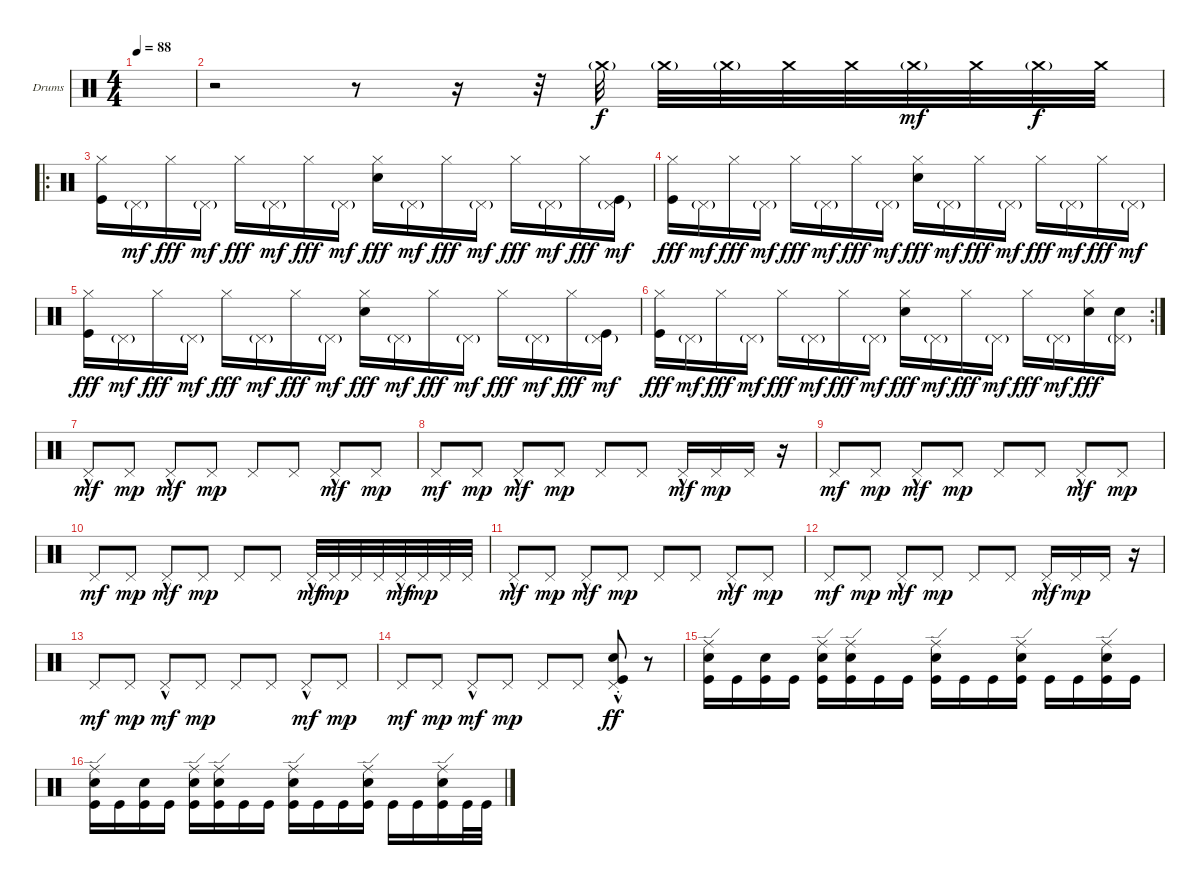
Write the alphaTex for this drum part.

\defaultSystemsLayout 4
\bracketExtendMode groupsimilarinstruments
\firstSystemTrackNameOrientation horizontal
\otherSystemsTrackNameOrientation horizontal
\track ("Drumkit" "Drums") {instrument percussion}
\staff {score}
\articulation defaults
\ts (4 4)
\tempo 88
\clef neutral
\scale
0.472222
\ks c
|
\scale
0.263889 r.2 r.8 r.16 r.32 "Crash medium (hit)"{g}.32 "Crash medium (hit)"{g}.32 "Crash medium (hit)"{g}.32 "Crash medium (hit)".32 "Crash medium (hit)".32 "Crash medium (hit)"{g}.32{dy mf} "Crash medium (hit)".32 "Crash medium (hit)"{g}.32{dy f} "Crash medium (hit)".32 |
\ro
\scale
0.333333 ("Hi-Hat (closed)" "Kick (hit)").16 "Pedal Hi-Hat (hit)"{g}.16{dy mf} "Hi-Hat (closed)".16{dy fff} "Pedal Hi-Hat (hit)"{g}.16{dy mf} "Hi-Hat (closed)".16{dy fff} "Pedal Hi-Hat (hit)"{g}.16{dy mf} "Hi-Hat (closed)".16{dy fff} "Pedal Hi-Hat (hit)"{g}.16{dy mf} ("Hi-Hat (closed)" "Snare (hit) 2").16{dy fff} "Pedal Hi-Hat (hit)"{g}.16{dy mf} "Hi-Hat (closed)".16{dy fff} "Pedal Hi-Hat (hit)"{g}.16{dy mf} "Hi-Hat (closed)".16{dy fff} "Pedal Hi-Hat (hit)"{g}.16{dy mf} "Hi-Hat (closed)".16{dy fff} ("Pedal Hi-Hat (hit)"{g} "Kick (hit)").16{dy mf} |
\scale
0.333333 ("Hi-Hat (closed)" "Kick (hit)").16{dy fff} "Pedal Hi-Hat (hit)"{g}.16{dy mf} "Hi-Hat (closed)".16{dy fff} "Pedal Hi-Hat (hit)"{g}.16{dy mf} "Hi-Hat (closed)".16{dy fff} "Pedal Hi-Hat (hit)"{g}.16{dy mf} "Hi-Hat (closed)".16{dy fff} "Pedal Hi-Hat (hit)"{g}.16{dy mf} ("Hi-Hat (closed)" "Snare (hit) 2").16{dy fff} "Pedal Hi-Hat (hit)"{g}.16{dy mf} "Hi-Hat (closed)".16{dy fff} "Pedal Hi-Hat (hit)"{g}.16{dy mf} "Hi-Hat (closed)".16{dy fff} "Pedal Hi-Hat (hit)"{g}.16{dy mf} "Hi-Hat (closed)".16{dy fff} "Pedal Hi-Hat (hit)"{g}.16{dy mf} |
("Hi-Hat (closed)" "Kick (hit)").16{dy fff} "Pedal Hi-Hat (hit)"{g}.16{dy mf} "Hi-Hat (closed)".16{dy fff} "Pedal Hi-Hat (hit)"{g}.16{dy mf} "Hi-Hat (closed)".16{dy fff} "Pedal Hi-Hat (hit)"{g}.16{dy mf} "Hi-Hat (closed)".16{dy fff} "Pedal Hi-Hat (hit)"{g}.16{dy mf} ("Hi-Hat (closed)" "Snare (hit) 2").16{dy fff} "Pedal Hi-Hat (hit)"{g}.16{dy mf} "Hi-Hat (closed)".16{dy fff} "Pedal Hi-Hat (hit)"{g}.16{dy mf} "Hi-Hat (closed)".16{dy fff} "Pedal Hi-Hat (hit)"{g}.16{dy mf} "Hi-Hat (closed)".16{dy fff} ("Pedal Hi-Hat (hit)"{g} "Kick (hit)").16{dy mf} |
\rc 2
("Hi-Hat (closed)" "Kick (hit)").16{dy fff} "Pedal Hi-Hat (hit)"{g}.16{dy mf} "Hi-Hat (closed)".16{dy fff} "Pedal Hi-Hat (hit)"{g}.16{dy mf} "Hi-Hat (closed)".16{dy fff} "Pedal Hi-Hat (hit)"{g}.16{dy mf} "Hi-Hat (closed)".16{dy fff} "Pedal Hi-Hat (hit)"{g}.16{dy mf} ("Hi-Hat (closed)" "Snare (hit) 2").16{dy fff} "Pedal Hi-Hat (hit)"{g}.16{dy mf} "Hi-Hat (closed)".16{dy fff} "Pedal Hi-Hat (hit)"{g}.16{dy mf} "Hi-Hat (closed)".16{dy fff} "Pedal Hi-Hat (hit)"{g}.16{dy mf} ("Hi-Hat (closed)" "Snare (hit) 2").16{dy fff} ("Pedal Hi-Hat (hit)"{g} "Snare (hit) 2").16 |
"Pedal Hi-Hat (hit)"{hac}.8{dy mf} "Pedal Hi-Hat (hit)".8{dy mp} "Pedal Hi-Hat (hit)"{hac}.8{dy mf} "Pedal Hi-Hat (hit)".8{dy mp} "Pedal Hi-Hat (hit)".8 "Pedal Hi-Hat (hit)".8 "Pedal Hi-Hat (hit)"{hac}.8{dy mf} "Pedal Hi-Hat (hit)".8{dy mp} |
"Pedal Hi-Hat (hit)".8{dy mf} "Pedal Hi-Hat (hit)".8{dy mp} "Pedal Hi-Hat (hit)"{hac}.8{dy mf} "Pedal Hi-Hat (hit)".8{dy mp} "Pedal Hi-Hat (hit)".8 "Pedal Hi-Hat (hit)".8 "Pedal Hi-Hat (hit)"{hac}.16{dy mf} "Pedal Hi-Hat (hit)".16{dy mp} "Pedal Hi-Hat (hit)".16 r.16 |
"Pedal Hi-Hat (hit)".8{dy mf} "Pedal Hi-Hat (hit)".8{dy mp} "Pedal Hi-Hat (hit)"{hac}.8{dy mf} "Pedal Hi-Hat (hit)".8{dy mp} "Pedal Hi-Hat (hit)".8 "Pedal Hi-Hat (hit)".8 "Pedal Hi-Hat (hit)"{hac}.8{dy mf} "Pedal Hi-Hat (hit)".8{dy mp} |
"Pedal Hi-Hat (hit)".8{dy mf} "Pedal Hi-Hat (hit)".8{dy mp} "Pedal Hi-Hat (hit)"{hac}.8{dy mf} "Pedal Hi-Hat (hit)".8{dy mp} "Pedal Hi-Hat (hit)".8 "Pedal Hi-Hat (hit)".8 "Pedal Hi-Hat (hit)"{hac}.32{dy mf} "Pedal Hi-Hat (hit)".32{dy mp} "Pedal Hi-Hat (hit)".32 "Pedal Hi-Hat (hit)".32 "Pedal Hi-Hat (hit)"{hac}.32{dy mf} "Pedal Hi-Hat (hit)".32{dy mp} "Pedal Hi-Hat (hit)".32 "Pedal Hi-Hat (hit)".32 |
"Pedal Hi-Hat (hit)"{hac}.8{dy mf} "Pedal Hi-Hat (hit)".8{dy mp} "Pedal Hi-Hat (hit)"{hac}.8{dy mf} "Pedal Hi-Hat (hit)".8{dy mp} "Pedal Hi-Hat (hit)".8 "Pedal Hi-Hat (hit)".8 "Pedal Hi-Hat (hit)"{hac}.8{dy mf} "Pedal Hi-Hat (hit)".8{dy mp} |
"Pedal Hi-Hat (hit)".8{dy mf} "Pedal Hi-Hat (hit)".8{dy mp} "Pedal Hi-Hat (hit)"{hac}.8{dy mf} "Pedal Hi-Hat (hit)".8{dy mp} "Pedal Hi-Hat (hit)".8 "Pedal Hi-Hat (hit)".8 "Pedal Hi-Hat (hit)"{hac}.16{dy mf} "Pedal Hi-Hat (hit)".16{dy mp} "Pedal Hi-Hat (hit)".16 r.16 |
"Pedal Hi-Hat (hit)".8{dy mf} "Pedal Hi-Hat (hit)".8{dy mp} "Pedal Hi-Hat (hit)"{hac}.8{dy mf} "Pedal Hi-Hat (hit)".8{dy mp} "Pedal Hi-Hat (hit)".8 "Pedal Hi-Hat (hit)".8 "Pedal Hi-Hat (hit)"{hac}.8{dy mf} "Pedal Hi-Hat (hit)".8{dy mp} |
"Pedal Hi-Hat (hit)".8{dy mf} "Pedal Hi-Hat (hit)".8{dy mp} "Pedal Hi-Hat (hit)"{hac}.8{dy mf} "Pedal Hi-Hat (hit)".8{dy mp} "Pedal Hi-Hat (hit)".8 "Pedal Hi-Hat (hit)".8 ("Pedal Hi-Hat (hit)"{hac st} "Snare (hit) 2"{hac} "Kick (hit)").8{dy ff} r.8 |
("Kick (hit)" "Snare (hit) 2" "Ride (edge)").16 "Kick (hit)".16 ("Kick (hit)" "Snare (hit) 2").16 "Kick (hit)".16 ("Kick (hit)" "Snare (hit) 2" "Ride (edge)").16 ("Kick (hit)" "Snare (hit) 2" "Ride (edge)").16 "Kick (hit)".16 "Kick (hit)".16 ("Kick (hit)" "Snare (hit) 2" "Ride (edge)").16 "Kick (hit)".16 "Kick (hit)".16 ("Kick (hit)" "Snare (hit) 2" "Ride (edge)").16 "Kick (hit)".16 "Kick (hit)".16 ("Kick (hit)" "Snare (hit) 2" "Ride (edge)").16 "Kick (hit)".16 |
("Kick (hit)" "Snare (hit) 2" "Ride (edge)").16 "Kick (hit)".16 ("Kick (hit)" "Snare (hit) 2").16 "Kick (hit)".16 ("Kick (hit)" "Snare (hit) 2" "Ride (edge)").16 ("Kick (hit)" "Snare (hit) 2" "Ride (edge)").16 "Kick (hit)".16 "Kick (hit)".16 ("Kick (hit)" "Snare (hit) 2" "Ride (edge)").16 "Kick (hit)".16 "Kick (hit)".16 ("Kick (hit)" "Snare (hit) 2" "Ride (edge)").16 "Kick (hit)".16 "Kick (hit)".16 ("Kick (hit)" "Snare (hit) 2" "Ride (edge)").16 "Kick (hit)".32 "Kick (hit)".32
